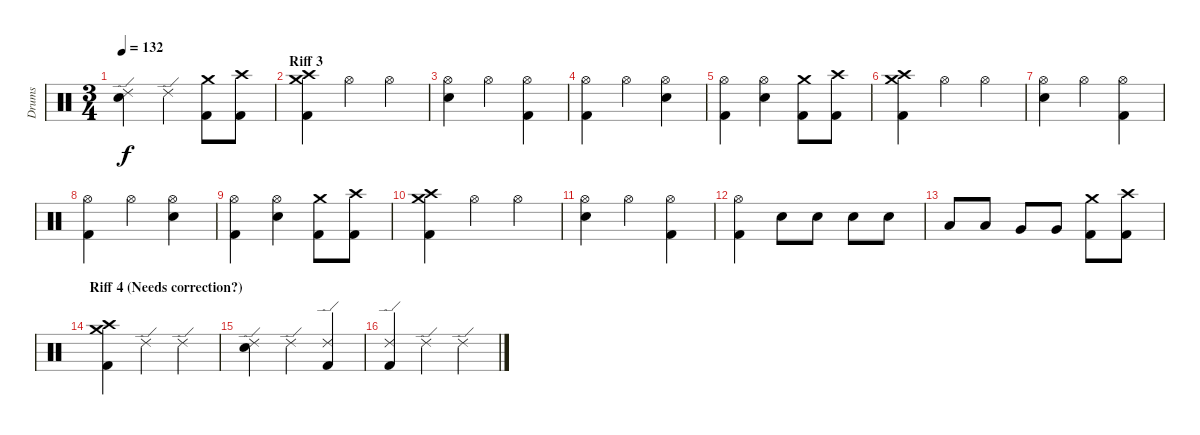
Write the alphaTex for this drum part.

\track ("Drums" "Drums") {instrument percussion}
\staff {score}
\articulation defaults
\ts (3 4)
\tempo 132
\clef neutral
\ks c
("Ride (edge) 2" "Electric Snare (hit)").4{dy f} "Ride (edge) 2".4 ("Crash medium (hit)" "Kick (hit) 2").8 ("Crash high (hit)" "Kick (hit) 2").8 |
\section ("" "Riff 3")
("Crash high (hit)" "Crash medium (hit)" "Kick (hit) 2").4 "Hi-Hat (open)".4 "Hi-Hat (open)".4 |
("Hi-Hat (open)" "Electric Snare (hit)").4 "Hi-Hat (open)".4 ("Hi-Hat (open)" "Kick (hit) 2").4 |
("Hi-Hat (open)" "Kick (hit) 2").4 "Hi-Hat (open)".4 ("Hi-Hat (open)" "Electric Snare (hit)").4 |
("Hi-Hat (open)" "Kick (hit) 2").4 ("Hi-Hat (open)" "Electric Snare (hit)").4 ("Crash medium (hit)" "Kick (hit) 2").8 ("Crash high (hit)" "Kick (hit) 2").8 |
("Crash high (hit)" "Crash medium (hit)" "Kick (hit) 2").4 "Hi-Hat (open)".4 "Hi-Hat (open)".4 |
("Hi-Hat (open)" "Electric Snare (hit)").4 "Hi-Hat (open)".4 ("Hi-Hat (open)" "Kick (hit) 2").4 |
("Hi-Hat (open)" "Kick (hit) 2").4 "Hi-Hat (open)".4 ("Hi-Hat (open)" "Electric Snare (hit)").4 |
("Hi-Hat (open)" "Kick (hit) 2").4 ("Hi-Hat (open)" "Electric Snare (hit)").4 ("Crash medium (hit)" "Kick (hit) 2").8 ("Crash high (hit)" "Kick (hit) 2").8 |
("Crash high (hit)" "Crash medium (hit)" "Kick (hit) 2").4 "Hi-Hat (open)".4 "Hi-Hat (open)".4 |
("Hi-Hat (open)" "Electric Snare (hit)").4 "Hi-Hat (open)".4 ("Hi-Hat (open)" "Kick (hit) 2").4 |
("Hi-Hat (open)" "Kick (hit) 2").4 "Electric Snare (hit)".8 "Electric Snare (hit)".8 "Electric Snare (hit)".8 "Electric Snare (hit)".8 |
"Low Tom (hit)".8 "Low Tom (hit)".8 "Very Low Tom (hit)".8 "Very Low Tom (hit)".8 ("Crash medium (hit)" "Kick (hit) 2").8 ("Crash high (hit)" "Kick (hit) 2").8 |
\section ("" "Riff 4 (Needs correction?)")
("Crash high (hit)" "Crash medium (hit)" "Kick (hit) 2").4 "Ride (edge) 2".4 "Ride (edge) 2".4 |
("Ride (edge) 2" "Electric Snare (hit)").4 "Ride (edge) 2".4 ("Ride (edge) 2" "Kick (hit) 2").4 |
("Ride (edge) 2" "Kick (hit) 2").4 "Ride (edge) 2".4 "Ride (edge) 2".4
